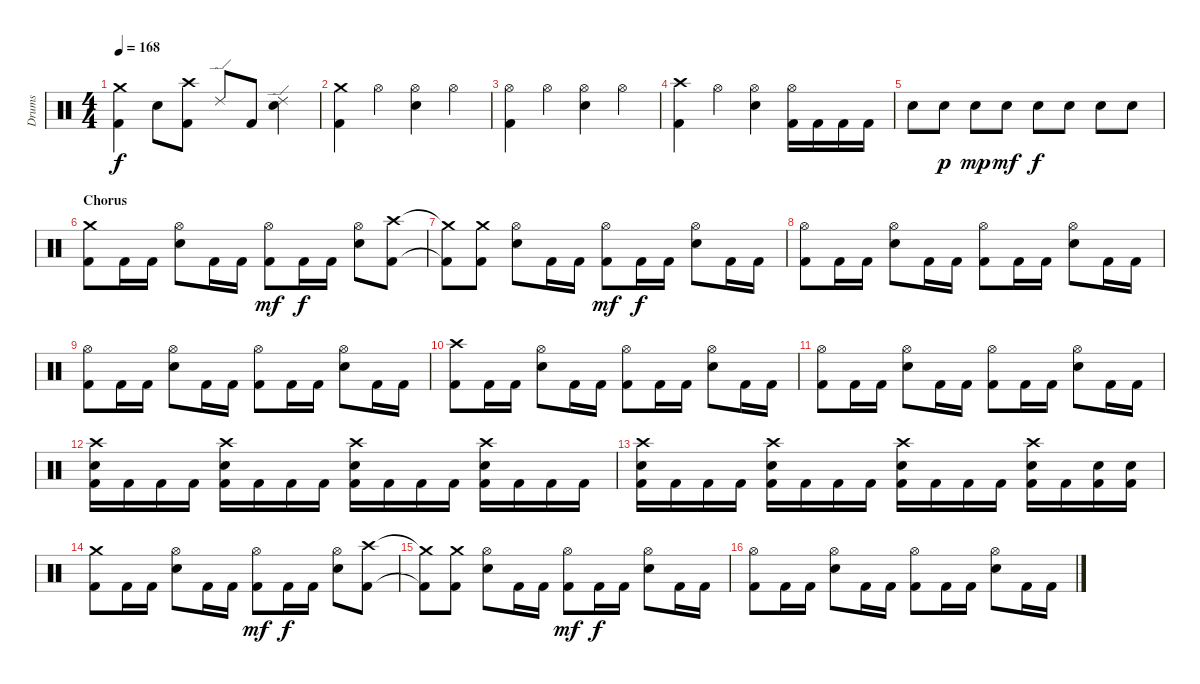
\track ("Drums" "Drums") {instrument percussion}
\staff {score}
\articulation defaults
\ts (4 4)
\tempo 168
\clef neutral
\ks c
("Kick (hit) 2" "Crash medium (hit)").4{dy f} "Electric Snare (hit)".8 ("Kick (hit) 2" "Crash high (hit)").8 "Ride (edge) 2".8 "Kick (hit) 2".8 ("Electric Snare (hit)" "Ride (edge) 2").4 |
("Kick (hit) 2" "Crash medium (hit)").4 "Hi-Hat (open)".4 ("Electric Snare (hit)" "Hi-Hat (open)").4 "Hi-Hat (open)".4 |
("Kick (hit) 2" "Hi-Hat (open)").4 "Hi-Hat (open)".4 ("Electric Snare (hit)" "Hi-Hat (open)").4 "Hi-Hat (open)".4 |
("Kick (hit) 2" "Crash high (hit)").4 "Hi-Hat (open)".4 ("Electric Snare (hit)" "Hi-Hat (open)").4 ("Kick (hit) 2" "Hi-Hat (open)").16 "Kick (hit) 2".16 "Kick (hit) 2".16 "Kick (hit) 2".16 |
"Electric Snare (hit)".8 "Electric Snare (hit)".8{dy p} "Electric Snare (hit)".8{dy mp} "Electric Snare (hit)".8{dy mf} "Electric Snare (hit)".8{dy f} "Electric Snare (hit)".8 "Electric Snare (hit)".8 "Electric Snare (hit)".8 |
\section ("" "Chorus")
("Kick (hit) 2" "Crash medium (hit)").8 "Kick (hit) 2".16 "Kick (hit) 2".16 ("Electric Snare (hit)" "Hi-Hat (open)").8 "Kick (hit) 2".16 "Kick (hit) 2".16 ("Kick (hit) 2" "Hi-Hat (open)").8{dy mf} "Kick (hit) 2".16{dy f} "Kick (hit) 2".16 ("Electric Snare (hit)" "Hi-Hat (open)").8 ("Kick (hit) 2" "Crash high (hit)").8 |
("Kick (hit) 2"{t} "Crash medium (hit)"{t}).8 ("Kick (hit) 2" "Crash medium (hit)").8 ("Electric Snare (hit)" "Hi-Hat (open)").8 "Kick (hit) 2".16 "Kick (hit) 2".16 ("Kick (hit) 2" "Hi-Hat (open)").8{dy mf} "Kick (hit) 2".16{dy f} "Kick (hit) 2".16 ("Electric Snare (hit)" "Hi-Hat (open)").8 "Kick (hit) 2".16 "Kick (hit) 2".16 |
("Kick (hit) 2" "Hi-Hat (open)").8 "Kick (hit) 2".16 "Kick (hit) 2".16 ("Electric Snare (hit)" "Hi-Hat (open)").8 "Kick (hit) 2".16 "Kick (hit) 2".16 ("Kick (hit) 2" "Hi-Hat (open)").8 "Kick (hit) 2".16 "Kick (hit) 2".16 ("Electric Snare (hit)" "Hi-Hat (open)").8 "Kick (hit) 2".16 "Kick (hit) 2".16 |
("Kick (hit) 2" "Hi-Hat (open)").8 "Kick (hit) 2".16 "Kick (hit) 2".16 ("Electric Snare (hit)" "Hi-Hat (open)").8 "Kick (hit) 2".16 "Kick (hit) 2".16 ("Kick (hit) 2" "Hi-Hat (open)").8 "Kick (hit) 2".16 "Kick (hit) 2".16 ("Electric Snare (hit)" "Hi-Hat (open)").8 "Kick (hit) 2".16 "Kick (hit) 2".16 |
("Kick (hit) 2" "Crash high (hit)").8 "Kick (hit) 2".16 "Kick (hit) 2".16 ("Electric Snare (hit)" "Hi-Hat (open)").8 "Kick (hit) 2".16 "Kick (hit) 2".16 ("Kick (hit) 2" "Hi-Hat (open)").8 "Kick (hit) 2".16 "Kick (hit) 2".16 ("Electric Snare (hit)" "Hi-Hat (open)").8 "Kick (hit) 2".16 "Kick (hit) 2".16 |
("Kick (hit) 2" "Hi-Hat (open)").8 "Kick (hit) 2".16 "Kick (hit) 2".16 ("Electric Snare (hit)" "Hi-Hat (open)").8 "Kick (hit) 2".16 "Kick (hit) 2".16 ("Kick (hit) 2" "Hi-Hat (open)").8 "Kick (hit) 2".16 "Kick (hit) 2".16 ("Electric Snare (hit)" "Hi-Hat (open)").8 "Kick (hit) 2".16 "Kick (hit) 2".16 |
("Kick (hit) 2" "Electric Snare (hit)" "Crash high (hit)").16 "Kick (hit) 2".16 "Kick (hit) 2".16 "Kick (hit) 2".16 ("Kick (hit) 2" "Electric Snare (hit)" "Crash high (hit)").16 "Kick (hit) 2".16 "Kick (hit) 2".16 "Kick (hit) 2".16 ("Kick (hit) 2" "Electric Snare (hit)" "Crash high (hit)").16 "Kick (hit) 2".16 "Kick (hit) 2".16 "Kick (hit) 2".16 ("Kick (hit) 2" "Electric Snare (hit)" "Crash high (hit)").16 "Kick (hit) 2".16 "Kick (hit) 2".16 "Kick (hit) 2".16 |
("Kick (hit) 2" "Electric Snare (hit)" "Crash high (hit)").16 "Kick (hit) 2".16 "Kick (hit) 2".16 "Kick (hit) 2".16 ("Kick (hit) 2" "Electric Snare (hit)" "Crash high (hit)").16 "Kick (hit) 2".16 "Kick (hit) 2".16 "Kick (hit) 2".16 ("Kick (hit) 2" "Electric Snare (hit)" "Crash high (hit)").16 "Kick (hit) 2".16 "Kick (hit) 2".16 "Kick (hit) 2".16 ("Kick (hit) 2" "Electric Snare (hit)" "Crash high (hit)").16 "Kick (hit) 2".16 ("Kick (hit) 2" "Electric Snare (hit)").16 ("Kick (hit) 2" "Electric Snare (hit)").16 |
\section ("" "")
("Kick (hit) 2" "Crash medium (hit)").8 "Kick (hit) 2".16 "Kick (hit) 2".16 ("Electric Snare (hit)" "Hi-Hat (open)").8 "Kick (hit) 2".16 "Kick (hit) 2".16 ("Kick (hit) 2" "Hi-Hat (open)").8{dy mf} "Kick (hit) 2".16{dy f} "Kick (hit) 2".16 ("Electric Snare (hit)" "Hi-Hat (open)").8 ("Kick (hit) 2" "Crash high (hit)").8 |
("Kick (hit) 2"{t} "Crash medium (hit)"{t}).8 ("Kick (hit) 2" "Crash medium (hit)").8 ("Electric Snare (hit)" "Hi-Hat (open)").8 "Kick (hit) 2".16 "Kick (hit) 2".16 ("Kick (hit) 2" "Hi-Hat (open)").8{dy mf} "Kick (hit) 2".16{dy f} "Kick (hit) 2".16 ("Electric Snare (hit)" "Hi-Hat (open)").8 "Kick (hit) 2".16 "Kick (hit) 2".16 |
("Kick (hit) 2" "Hi-Hat (open)").8 "Kick (hit) 2".16 "Kick (hit) 2".16 ("Electric Snare (hit)" "Hi-Hat (open)").8 "Kick (hit) 2".16 "Kick (hit) 2".16 ("Kick (hit) 2" "Hi-Hat (open)").8 "Kick (hit) 2".16 "Kick (hit) 2".16 ("Electric Snare (hit)" "Hi-Hat (open)").8 "Kick (hit) 2".16 "Kick (hit) 2".16
